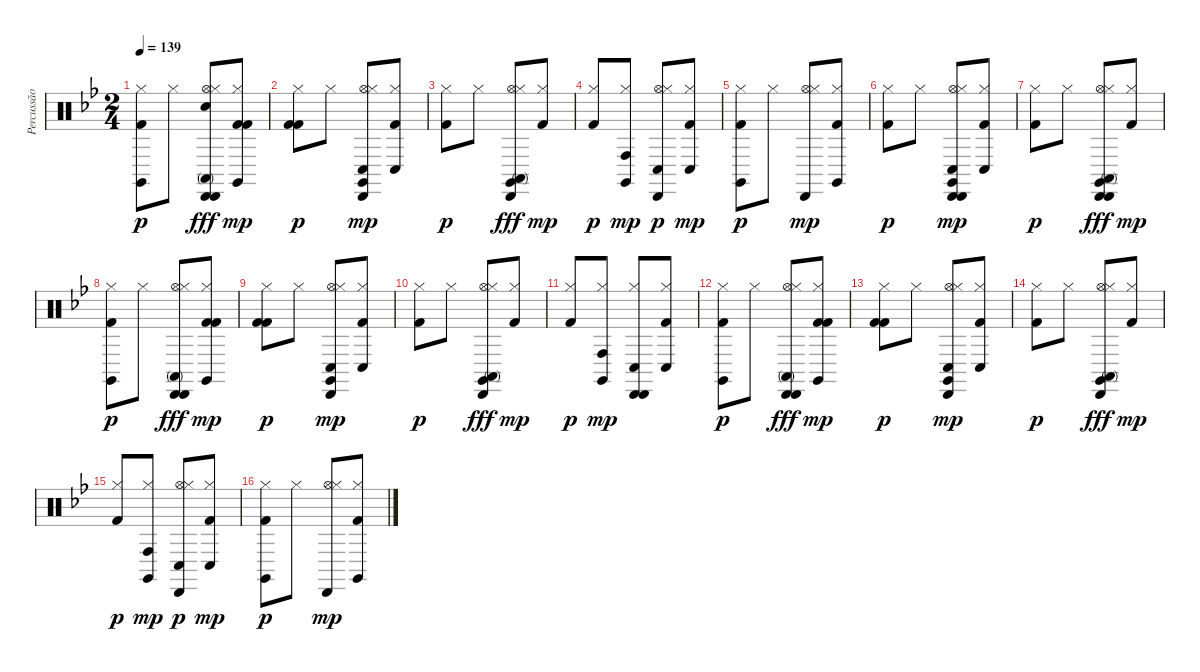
\track ("Percussão" "Percussão") {instrument percussion}
\staff {score}
\articulation defaults
\ts (2 4)
\tempo 139
\clef neutral
\ks bb
("Kick (hit) 2" "Claves (hit)" "Hi-Hat (closed)").8{dy p} "Hi-Hat (closed)".8 ("Hi-Hat (open)" "Hi-Hat (closed)" "Electric Snare (hit)" "Cabasa (hit)" "Cabasa (hit)" "Conga high (mute)").8{dy fff} ("Hi-Hat (closed)" "Claves (hit)" "Kick (hit) 2" "Kick (hit) 2").8{dy mp} |
("Kick (hit) 2" "Kick (hit) 2" "Hi-Hat (closed)").8{dy p} "Hi-Hat (closed)".8 ("Hi-Hat (open)" "Hi-Hat (closed)" "Claves (hit)" "Conga low (hit)" "Cabasa (hit)").8{dy mp} ("Hi-Hat (closed)" "Conga low (hit)" "Kick (hit) 2").8 |
("Kick (hit) 2" "Hi-Hat (closed)").8{dy p} "Hi-Hat (closed)".8 ("Hi-Hat (open)" "Hi-Hat (closed)" "Claves (hit)" "Cabasa (hit)" "Conga high (mute)").8{dy fff} ("Hi-Hat (closed)" "Kick (hit) 2").8{dy mp} |
("Kick (hit) 2" "Hi-Hat (closed)").8{dy p} ("Hi-Hat (closed)" "Claves (hit)" "Conga high (hit)").8{dy mp} ("Hi-Hat (open)" "Hi-Hat (closed)" "Conga low (hit)" "Cabasa (hit)").8{dy p} ("Hi-Hat (closed)" "Conga low (hit)" "Kick (hit) 2").8{dy mp} |
("Kick (hit) 2" "Claves (hit)" "Hi-Hat (closed)").8{dy p} "Hi-Hat (closed)".8 ("Hi-Hat (open)" "Hi-Hat (closed)" "Cabasa (hit)").8{dy mp} ("Hi-Hat (closed)" "Claves (hit)" "Kick (hit) 2").8 |
("Kick (hit) 2" "Hi-Hat (closed)").8{dy p} "Hi-Hat (closed)".8 ("Hi-Hat (open)" "Hi-Hat (closed)" "Claves (hit)" "Conga low (hit)" "Cabasa (hit)" "Cabasa (hit)").8{dy mp} ("Hi-Hat (closed)" "Conga low (hit)" "Kick (hit) 2").8 |
("Kick (hit) 2" "Hi-Hat (closed)").8{dy p} "Hi-Hat (closed)".8 ("Hi-Hat (open)" "Hi-Hat (closed)" "Claves (hit)" "Cabasa (hit)" "Cabasa (hit)" "Conga high (mute)").8{dy fff} ("Hi-Hat (closed)" "Kick (hit) 2").8{dy mp} |
("Kick (hit) 2" "Claves (hit)" "Hi-Hat (closed)").8{dy p} "Hi-Hat (closed)".8 ("Hi-Hat (open)" "Hi-Hat (closed)" "Cabasa (hit)" "Cabasa (hit)" "Conga high (mute)").8{dy fff} ("Hi-Hat (closed)" "Claves (hit)" "Kick (hit) 2" "Kick (hit) 2").8{dy mp} |
("Kick (hit) 2" "Kick (hit) 2" "Hi-Hat (closed)").8{dy p} "Hi-Hat (closed)".8 ("Hi-Hat (open)" "Hi-Hat (closed)" "Claves (hit)" "Conga low (hit)" "Cabasa (hit)").8{dy mp} ("Hi-Hat (closed)" "Conga low (hit)" "Kick (hit) 2").8 |
("Kick (hit) 2" "Hi-Hat (closed)").8{dy p} "Hi-Hat (closed)".8 ("Hi-Hat (open)" "Hi-Hat (closed)" "Claves (hit)" "Cabasa (hit)" "Conga high (mute)").8{dy fff} ("Hi-Hat (closed)" "Kick (hit) 2").8{dy mp} |
("Kick (hit) 2" "Hi-Hat (closed)").8{dy p} ("Hi-Hat (closed)" "Claves (hit)" "Conga high (hit)").8{dy mp} ("Hi-Hat (closed)" "Conga low (hit)" "Cabasa (hit)" "Cabasa (hit)").8 ("Hi-Hat (closed)" "Conga low (hit)" "Kick (hit) 2").8 |
("Kick (hit) 2" "Claves (hit)" "Hi-Hat (closed)").8{dy p} "Hi-Hat (closed)".8 ("Hi-Hat (open)" "Hi-Hat (closed)" "Cabasa (hit)" "Cabasa (hit)" "Conga high (mute)").8{dy fff} ("Hi-Hat (closed)" "Claves (hit)" "Kick (hit) 2" "Kick (hit) 2").8{dy mp} |
("Kick (hit) 2" "Kick (hit) 2" "Hi-Hat (closed)").8{dy p} "Hi-Hat (closed)".8 ("Hi-Hat (open)" "Hi-Hat (closed)" "Claves (hit)" "Conga low (hit)" "Cabasa (hit)").8{dy mp} ("Hi-Hat (closed)" "Conga low (hit)" "Kick (hit) 2").8 |
("Kick (hit) 2" "Hi-Hat (closed)").8{dy p} "Hi-Hat (closed)".8 ("Hi-Hat (open)" "Hi-Hat (closed)" "Claves (hit)" "Cabasa (hit)" "Conga high (mute)").8{dy fff} ("Hi-Hat (closed)" "Kick (hit) 2").8{dy mp} |
("Kick (hit) 2" "Hi-Hat (closed)").8{dy p} ("Hi-Hat (closed)" "Claves (hit)" "Conga high (hit)").8{dy mp} ("Hi-Hat (open)" "Hi-Hat (closed)" "Conga low (hit)" "Cabasa (hit)").8{dy p} ("Hi-Hat (closed)" "Conga low (hit)" "Kick (hit) 2").8{dy mp} |
("Kick (hit) 2" "Claves (hit)" "Hi-Hat (closed)").8{dy p} "Hi-Hat (closed)".8 ("Hi-Hat (open)" "Hi-Hat (closed)" "Cabasa (hit)").8{dy mp} ("Hi-Hat (closed)" "Claves (hit)" "Kick (hit) 2").8
